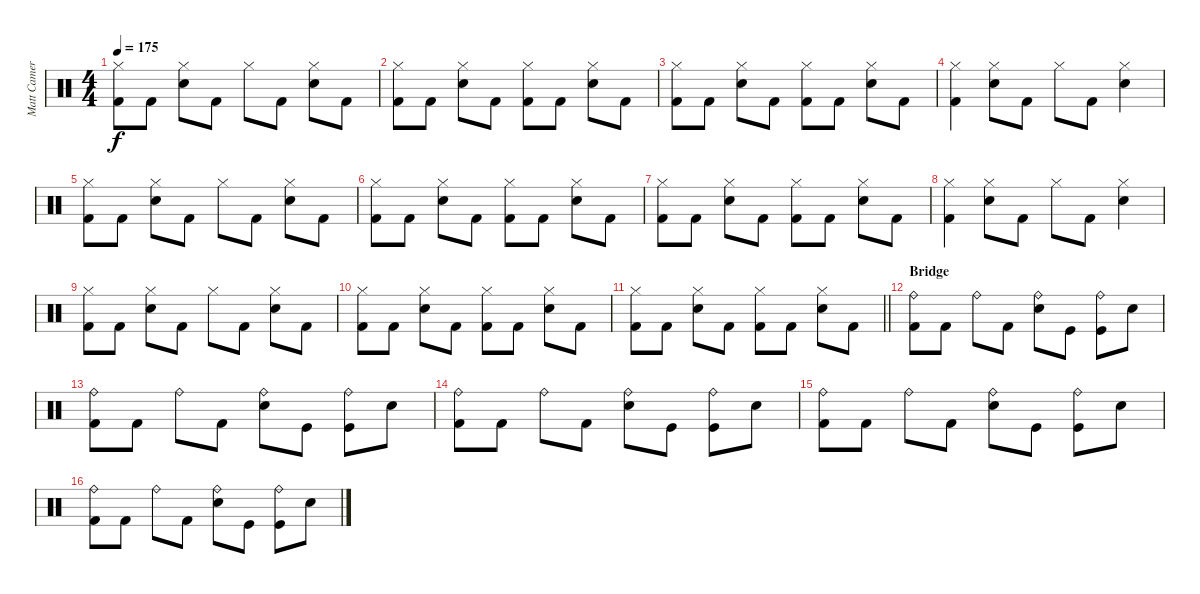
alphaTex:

\track ("Matt Cameron" "Matt Camer") {instrument percussion}
\staff {score}
\articulation defaults
\ts (4 4)
\tempo 175
\clef neutral
\ks c
("Hi-Hat (closed)" "Kick (hit) 2").8{dy f} "Kick (hit) 2".8 ("Hi-Hat (closed)" "Electric Snare (hit)").8 "Kick (hit) 2".8 "Hi-Hat (closed)".8 "Kick (hit) 2".8 ("Hi-Hat (closed)" "Electric Snare (hit)").8 "Kick (hit) 2".8 |
("Hi-Hat (closed)" "Kick (hit) 2").8 "Kick (hit) 2".8 ("Hi-Hat (closed)" "Electric Snare (hit)").8 "Kick (hit) 2".8 ("Hi-Hat (closed)" "Kick (hit) 2").8 "Kick (hit) 2".8 ("Hi-Hat (closed)" "Electric Snare (hit)").8 "Kick (hit) 2".8 |
("Hi-Hat (closed)" "Kick (hit) 2").8 "Kick (hit) 2".8 ("Hi-Hat (closed)" "Electric Snare (hit)").8 "Kick (hit) 2".8 ("Hi-Hat (closed)" "Kick (hit) 2").8 "Kick (hit) 2".8 ("Hi-Hat (closed)" "Electric Snare (hit)").8 "Kick (hit) 2".8 |
("Hi-Hat (closed)" "Kick (hit) 2").4 ("Hi-Hat (closed)" "Electric Snare (hit)").8 "Kick (hit) 2".8 "Hi-Hat (closed)".8 "Kick (hit) 2".8 ("Hi-Hat (closed)" "Electric Snare (hit)").4 |
("Hi-Hat (closed)" "Kick (hit) 2").8 "Kick (hit) 2".8 ("Hi-Hat (closed)" "Electric Snare (hit)").8 "Kick (hit) 2".8 "Hi-Hat (closed)".8 "Kick (hit) 2".8 ("Hi-Hat (closed)" "Electric Snare (hit)").8 "Kick (hit) 2".8 |
("Hi-Hat (closed)" "Kick (hit) 2").8 "Kick (hit) 2".8 ("Hi-Hat (closed)" "Electric Snare (hit)").8 "Kick (hit) 2".8 ("Hi-Hat (closed)" "Kick (hit) 2").8 "Kick (hit) 2".8 ("Hi-Hat (closed)" "Electric Snare (hit)").8 "Kick (hit) 2".8 |
("Hi-Hat (closed)" "Kick (hit) 2").8 "Kick (hit) 2".8 ("Hi-Hat (closed)" "Electric Snare (hit)").8 "Kick (hit) 2".8 ("Hi-Hat (closed)" "Kick (hit) 2").8 "Kick (hit) 2".8 ("Hi-Hat (closed)" "Electric Snare (hit)").8 "Kick (hit) 2".8 |
("Hi-Hat (closed)" "Kick (hit) 2").4 ("Hi-Hat (closed)" "Electric Snare (hit)").8 "Kick (hit) 2".8 "Hi-Hat (closed)".8 "Kick (hit) 2".8 ("Hi-Hat (closed)" "Electric Snare (hit)").4 |
("Hi-Hat (closed)" "Kick (hit) 2").8 "Kick (hit) 2".8 ("Hi-Hat (closed)" "Electric Snare (hit)").8 "Kick (hit) 2".8 "Hi-Hat (closed)".8 "Kick (hit) 2".8 ("Hi-Hat (closed)" "Electric Snare (hit)").8 "Kick (hit) 2".8 |
("Hi-Hat (closed)" "Kick (hit) 2").8 "Kick (hit) 2".8 ("Hi-Hat (closed)" "Electric Snare (hit)").8 "Kick (hit) 2".8 ("Hi-Hat (closed)" "Kick (hit) 2").8 "Kick (hit) 2".8 ("Hi-Hat (closed)" "Electric Snare (hit)").8 "Kick (hit) 2".8 |
\barLineRight lightlight
("Hi-Hat (closed)" "Kick (hit) 2").8 "Kick (hit) 2".8 ("Hi-Hat (closed)" "Electric Snare (hit)").8 "Kick (hit) 2".8 ("Hi-Hat (closed)" "Kick (hit) 2").8 "Kick (hit) 2".8 ("Hi-Hat (closed)" "Electric Snare (hit)").8 "Kick (hit) 2".8 |
\section ("" "Bridge")
("Ride (bell)" "Kick (hit) 2").8 "Kick (hit) 2".8 "Ride (bell)".8 "Kick (hit) 2".8 ("Ride (bell)" "Electric Snare (hit)").8 "Kick (hit)".8 ("Ride (bell)" "Kick (hit)").8 "Electric Snare (hit)".8 |
("Ride (bell)" "Kick (hit) 2").8 "Kick (hit) 2".8 "Ride (bell)".8 "Kick (hit) 2".8 ("Ride (bell)" "Electric Snare (hit)").8 "Kick (hit)".8 ("Ride (bell)" "Kick (hit)").8 "Electric Snare (hit)".8 |
("Ride (bell)" "Kick (hit) 2").8 "Kick (hit) 2".8 "Ride (bell)".8 "Kick (hit) 2".8 ("Ride (bell)" "Electric Snare (hit)").8 "Kick (hit)".8 ("Ride (bell)" "Kick (hit)").8 "Electric Snare (hit)".8 |
("Ride (bell)" "Kick (hit) 2").8 "Kick (hit) 2".8 "Ride (bell)".8 "Kick (hit) 2".8 ("Ride (bell)" "Electric Snare (hit)").8 "Kick (hit)".8 ("Ride (bell)" "Kick (hit)").8 "Electric Snare (hit)".8 |
("Ride (bell)" "Kick (hit) 2").8 "Kick (hit) 2".8 "Ride (bell)".8 "Kick (hit) 2".8 ("Ride (bell)" "Electric Snare (hit)").8 "Kick (hit)".8 ("Ride (bell)" "Kick (hit)").8 "Electric Snare (hit)".8
